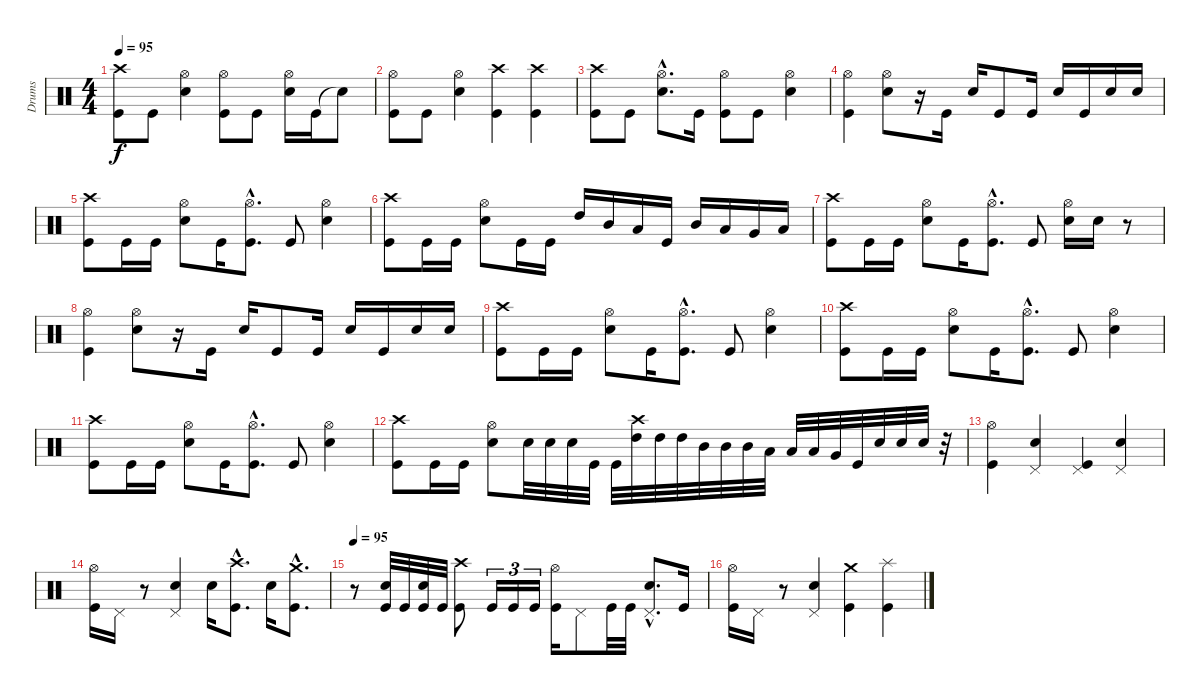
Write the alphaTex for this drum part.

\track ("Drums" "Drums") {instrument percussion}
\staff {score}
\articulation defaults
\ts (4 4)
\tempo 95
\clef neutral
\ks c
("Crash high (hit)" "Kick (hit)").8{dy f} "Kick (hit)".8 ("Hi-Hat (open)" "Electric Snare (hit)").4 ("Hi-Hat (open)" "Kick (hit)").8 "Kick (hit)".8 ("Hi-Hat (open)" "Electric Snare (hit)").16 "Kick (hit)".16 "Snare (hit)"{t}.8 |
("Hi-Hat (open)" "Kick (hit)").8 "Kick (hit)".8 ("Hi-Hat (open)" "Electric Snare (hit)").4 ("Crash high (hit)" "Kick (hit)").4 ("Crash high (hit)" "Kick (hit)").4 |
("Crash high (hit)" "Kick (hit)").8 "Kick (hit)".8 ("Hi-Hat (open)"{hac} "Electric Snare (hit)"{hac}).8{d} "Kick (hit)".16 ("Hi-Hat (open)" "Kick (hit)").8 "Kick (hit)".8 ("Hi-Hat (open)" "Electric Snare (hit)").4 |
("Hi-Hat (open)" "Kick (hit)").4 ("Hi-Hat (open)" "Electric Snare (hit)").8 r.16 "Kick (hit)".16 "Electric Snare (hit)".16 "Kick (hit)".8 "Kick (hit)".16 "Electric Snare (hit)".16 "Kick (hit)".16 "Electric Snare (hit)".16 "Electric Snare (hit)".16 |
("Crash high (hit)" "Kick (hit)").8 "Kick (hit)".16 "Kick (hit)".16 ("Hi-Hat (open)" "Electric Snare (hit)").8 "Kick (hit)".16 ("Hi-Hat (open)"{hac} "Kick (hit)"{hac}).8{d} "Kick (hit)".8 ("Hi-Hat (open)" "Electric Snare (hit)").4 |
("Crash high (hit)" "Kick (hit)").8 "Kick (hit)".16 "Kick (hit)".16 ("Hi-Hat (open)" "Electric Snare (hit)").8 "Kick (hit)".16 "Kick (hit)".16 "High Tom (hit)".16 "Mid Tom (hit)".16 "Low Tom (hit)".16 "Kick (hit)".16 "Mid Tom (hit)".16 "Low Tom (hit)".16 "Very Low Tom (hit)".16 "Low Floor Tom (hit)".16 |
("Crash high (hit)" "Kick (hit)").8 "Kick (hit)".16 "Kick (hit)".16 ("Hi-Hat (open)" "Electric Snare (hit)").8 "Kick (hit)".16 ("Hi-Hat (open)"{hac} "Kick (hit)"{hac}).8{d} "Kick (hit)".8 ("Hi-Hat (open)" "Electric Snare (hit)").16 "Electric Snare (hit)".16 r.8 |
("Hi-Hat (open)" "Kick (hit)").4 ("Hi-Hat (open)" "Electric Snare (hit)").8 r.16 "Kick (hit)".16 "Electric Snare (hit)".16 "Kick (hit)".8 "Kick (hit)".16 "Electric Snare (hit)".16 "Kick (hit)".16 "Electric Snare (hit)".16 "Electric Snare (hit)".16 |
("Crash high (hit)" "Kick (hit)").8 "Kick (hit)".16 "Kick (hit)".16 ("Hi-Hat (open)" "Electric Snare (hit)").8 "Kick (hit)".16 ("Hi-Hat (open)"{hac} "Kick (hit)"{hac}).8{d} "Kick (hit)".8 ("Hi-Hat (open)" "Electric Snare (hit)").4 |
("Crash high (hit)" "Kick (hit)").8 "Kick (hit)".16 "Kick (hit)".16 ("Hi-Hat (open)" "Electric Snare (hit)").8 "Kick (hit)".16 ("Hi-Hat (open)"{hac} "Kick (hit)"{hac}).8{d} "Kick (hit)".8 ("Hi-Hat (open)" "Electric Snare (hit)").4 |
("Crash high (hit)" "Kick (hit)").8 "Kick (hit)".16 "Kick (hit)".16 ("Hi-Hat (open)" "Electric Snare (hit)").8 "Kick (hit)".16 ("Hi-Hat (open)"{hac} "Kick (hit)"{hac}).8{d} "Kick (hit)".8 ("Hi-Hat (open)" "Electric Snare (hit)").4 |
("Crash high (hit)" "Kick (hit)").8 "Kick (hit)".16 "Kick (hit)".16 ("Hi-Hat (open)" "Electric Snare (hit)").8 "Electric Snare (hit)".32 "Electric Snare (hit)".32 "Electric Snare (hit)".32 "Kick (hit)".32 "Kick (hit)".32 ("Crash high (hit)" "High Tom (hit)").32 "High Tom (hit)".32 "High Tom (hit)".32 "Mid Tom (hit)".32 "Mid Tom (hit)".32 "Mid Tom (hit)".32 "Low Tom (hit)".32 "Low Tom (hit)".32 "Low Tom (hit)".32 "Very Low Tom (hit)".32 "Kick (hit)".32 "Electric Snare (hit)".32 "Electric Snare (hit)".32 "Electric Snare (hit)".32 r.32 |
("Hi-Hat (open)" "Kick (hit)").4 ("Pedal Hi-Hat (hit)" "Electric Snare (hit)").4 ("Pedal Hi-Hat (hit)" "Kick (hit)").4 ("Pedal Hi-Hat (hit)" "Electric Snare (hit)").4 |
("Hi-Hat (open)" "Kick (hit)").16 "Pedal Hi-Hat (hit)".16 r.8 ("Pedal Hi-Hat (hit)" "Electric Snare (hit)").4 "Electric Snare (hit)".16 ("Crash high (hit)"{hac} "Kick (hit)"{hac}).8{d} "Electric Snare (hit)".16 ("Crash medium (hit)"{hac} "Kick (hit)"{hac}).8{d} |
\tempo 95
r.8 ("Electric Snare (hit)" "Kick (hit)").32 "Kick (hit)".32 ("Electric Snare (hit)" "Kick (hit)").32 "Kick (hit)".32 ("Crash high (hit)" "Kick (hit)").8 "Kick (hit)".16{tu (3 2)} "Kick (hit)".16{tu (3 2)} "Kick (hit)".16{tu (3 2)} ("Hi-Hat (open)" "Kick (hit)").16 "Pedal Hi-Hat (hit)".8 "Kick (hit)".32 "Kick (hit)".32 ("Pedal Hi-Hat (hit)"{hac} "Electric Snare (hit)"{hac}).8{d} "Kick (hit)".16 |
("Hi-Hat (open)" "Kick (hit)").16 "Pedal Hi-Hat (hit)".16 r.8 ("Pedal Hi-Hat (hit)" "Electric Snare (hit)").4 ("Crash medium (hit)" "Kick (hit)").4 ("Splash (hit)" "Kick (hit)").4
